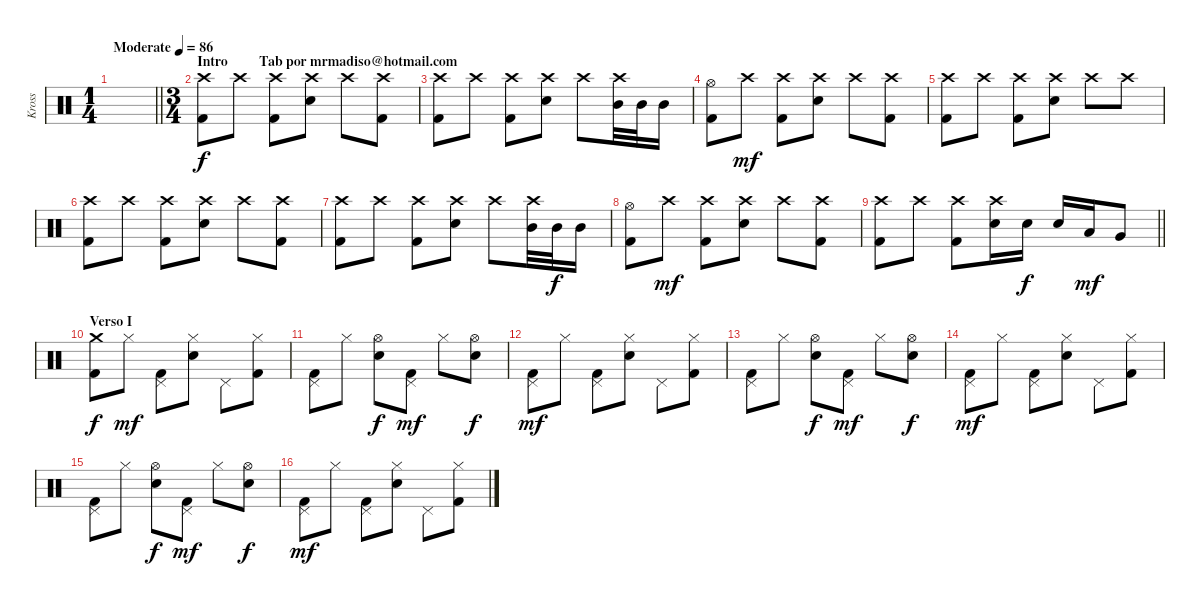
\track ("Kross" "Kross") {instrument percussion}
\staff {score}
\articulation defaults
\ts (1 4)
\tempo (86 "Moderate")
\clef neutral
\barLineRight lightlight
\ks c
|
\ts (3 4)
\section ("" "Intro         Tab por mrmadiso@hotmail.com")
("Crash high (hit)" "Kick (hit) 2").8 "Crash high (hit)".8 ("Crash high (hit)" "Kick (hit) 2").8 ("Crash high (hit)" "Snare (hit) 2").8 "Crash high (hit)".8 ("Crash high (hit)" "Kick (hit) 2").8 |
("Crash high (hit)" "Kick (hit) 2").8 "Crash high (hit)".8 ("Crash high (hit)" "Kick (hit) 2").8 ("Crash high (hit)" "Snare (hit) 2").8 "Crash high (hit)".8 ("Crash high (hit)" "Mid Tom (hit)").32 "Mid Tom (hit)".32{dy f} "Mid Tom (hit)".16 |
("Hi-Hat (open)" "Kick (hit) 2").8 "Crash high (hit)".8{dy mf} ("Crash high (hit)" "Kick (hit) 2").8 ("Crash high (hit)" "Snare (hit) 2").8 "Crash high (hit)".8 ("Crash high (hit)" "Kick (hit) 2").8 |
("Crash high (hit)" "Kick (hit) 2").8 "Crash high (hit)".8 ("Crash high (hit)" "Kick (hit) 2").8 ("Crash high (hit)" "Snare (hit) 2").8 "Crash high (hit)".8 "Crash high (hit)".8 |
("Crash high (hit)" "Kick (hit) 2").8 "Crash high (hit)".8 ("Crash high (hit)" "Kick (hit) 2").8 ("Crash high (hit)" "Snare (hit) 2").8 "Crash high (hit)".8 ("Crash high (hit)" "Kick (hit) 2").8 |
("Crash high (hit)" "Kick (hit) 2").8 "Crash high (hit)".8 ("Crash high (hit)" "Kick (hit) 2").8 ("Crash high (hit)" "Snare (hit) 2").8 "Crash high (hit)".8 ("Crash high (hit)" "Mid Tom (hit)").32 "Mid Tom (hit)".32{dy f} "Mid Tom (hit)".16 |
("Hi-Hat (open)" "Kick (hit) 2").8 "Crash high (hit)".8{dy mf} ("Crash high (hit)" "Kick (hit) 2").8 ("Crash high (hit)" "Snare (hit) 2").8 "Crash high (hit)".8 ("Crash high (hit)" "Kick (hit) 2").8 |
\barLineRight lightlight
("Crash high (hit)" "Kick (hit) 2").8 "Crash high (hit)".8 ("Crash high (hit)" "Kick (hit) 2").8 ("Crash high (hit)" "Electric Snare (hit)").16 "Electric Snare (hit)".16{dy f} "Electric Snare (hit)".16 "Low Tom (hit)".16{dy mf} "Very Low Tom (hit)".8 |
\section ("" "Verso I")
("Crash medium (hit)" "Kick (hit) 2").8{dy f} "Hi-Hat (closed)".8{dy mf} ("Pedal Hi-Hat (hit)" "Kick (hit) 2").8 ("Hi-Hat (closed)" "Electric Snare (hit)").8 "Pedal Hi-Hat (hit)".8 ("Hi-Hat (closed)" "Kick (hit) 2").8 |
("Pedal Hi-Hat (hit)" "Kick (hit) 2").8 "Hi-Hat (closed)".8 ("Hi-Hat (open)" "Electric Snare (hit)").8{dy f} ("Pedal Hi-Hat (hit)" "Kick (hit) 2").8{dy mf} "Hi-Hat (closed)".8 ("Hi-Hat (open)" "Electric Snare (hit)").8{dy f} |
("Pedal Hi-Hat (hit)" "Kick (hit) 2").8{dy mf} "Hi-Hat (closed)".8 ("Pedal Hi-Hat (hit)" "Kick (hit) 2").8 ("Hi-Hat (closed)" "Electric Snare (hit)").8 "Pedal Hi-Hat (hit)".8 ("Hi-Hat (closed)" "Kick (hit) 2").8 |
("Pedal Hi-Hat (hit)" "Kick (hit) 2").8 "Hi-Hat (closed)".8 ("Hi-Hat (open)" "Electric Snare (hit)").8{dy f} ("Pedal Hi-Hat (hit)" "Kick (hit) 2").8{dy mf} "Hi-Hat (closed)".8 ("Hi-Hat (open)" "Electric Snare (hit)").8{dy f} |
("Pedal Hi-Hat (hit)" "Kick (hit) 2").8{dy mf} "Hi-Hat (closed)".8 ("Pedal Hi-Hat (hit)" "Kick (hit) 2").8 ("Hi-Hat (closed)" "Electric Snare (hit)").8 "Pedal Hi-Hat (hit)".8 ("Hi-Hat (closed)" "Kick (hit) 2").8 |
("Pedal Hi-Hat (hit)" "Kick (hit) 2").8 "Hi-Hat (closed)".8 ("Hi-Hat (open)" "Electric Snare (hit)").8{dy f} ("Pedal Hi-Hat (hit)" "Kick (hit) 2").8{dy mf} "Hi-Hat (closed)".8 ("Hi-Hat (open)" "Electric Snare (hit)").8{dy f} |
("Pedal Hi-Hat (hit)" "Kick (hit) 2").8{dy mf} "Hi-Hat (closed)".8 ("Pedal Hi-Hat (hit)" "Kick (hit) 2").8 ("Hi-Hat (closed)" "Electric Snare (hit)").8 "Pedal Hi-Hat (hit)".8 ("Hi-Hat (closed)" "Kick (hit) 2").8
